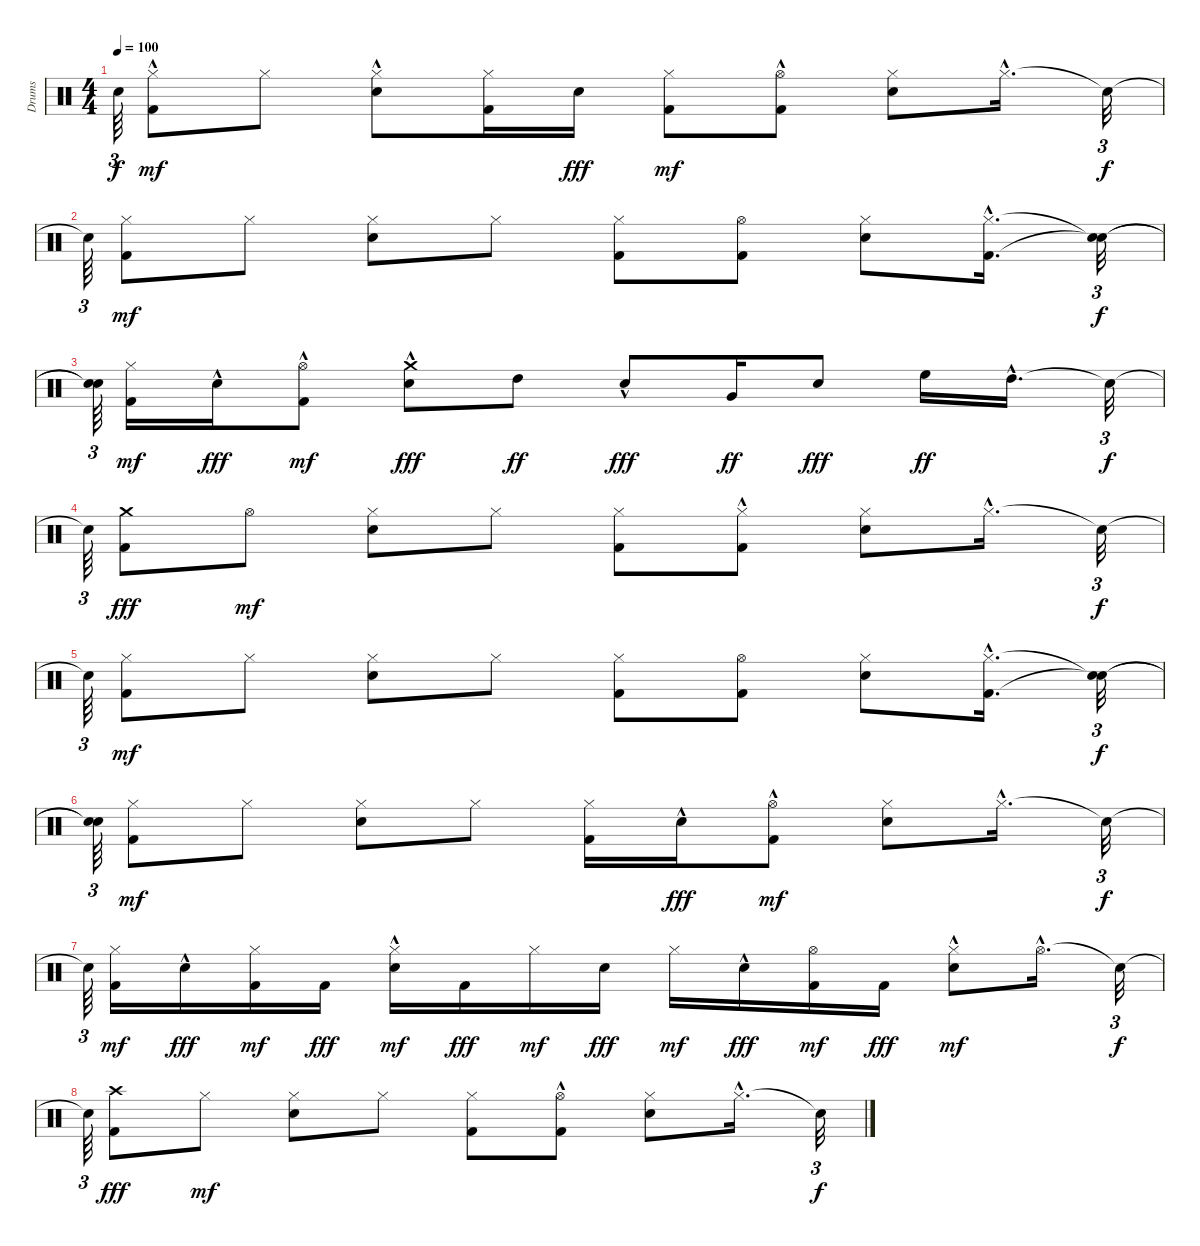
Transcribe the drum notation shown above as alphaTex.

\track ("Drums" "Drums") {instrument percussion}
\staff {score}
\articulation defaults
\ts (4 4)
\tempo 100
\clef neutral
\ks c "Snare (hit)"{t}.64{tu (3 2) dy f}
("Kick (hit) 2"{hac} "Hi-Hat (closed)").8{dy mf} "Hi-Hat (closed)".8 ("Snare (hit) 2"{hac} "Hi-Hat (closed)").8 ("Kick (hit) 2" "Hi-Hat (closed)").16 "Snare (hit) 2".16{dy fff} ("Kick (hit) 2" "Hi-Hat (closed)").8{dy mf} ("Kick (hit) 2"{hac} "Hi-Hat (open)").8 ("Snare (hit) 2" "Hi-Hat (closed)").8 "Hi-Hat (closed)"{hac}.16{d} "Snare (hit)"{t}.32{tu (3 2) dy f} |
"Snare (hit)"{t}.64{tu (3 2)} ("Kick (hit) 2" "Hi-Hat (closed)").8{dy mf} "Hi-Hat (closed)".8 ("Snare (hit) 2" "Hi-Hat (closed)").8 "Hi-Hat (closed)".8 ("Kick (hit) 2" "Hi-Hat (closed)").8 ("Kick (hit) 2" "Hi-Hat (open)").8 ("Snare (hit) 2" "Hi-Hat (closed)").8 ("Kick (hit) 2"{hac} "Hi-Hat (closed)"{hac}).16{d} ("Snare (hit)"{t} "Snare (hit)"{t}).32{tu (3 2) dy f} |
("Snare (hit)"{t} "Snare (hit)"{t}).64{tu (3 2)} ("Kick (hit) 2" "Hi-Hat (closed)").16{dy mf} "Snare (hit) 2"{hac}.16{dy fff} ("Kick (hit) 2"{hac} "Hi-Hat (open)").8{dy mf} ("Crash medium (hit)"{hac} "Snare (hit) 2").8{dy fff} "High Tom (hit)".8{dy ff} "Snare (hit) 2"{hac}.8{dy fff} "Very Low Tom (hit)".16{dy ff} "Snare (hit) 2".8{dy fff} "High Floor Tom (hit)".16{dy ff} "High Tom (hit)"{hac}.16{d} "Snare (hit)"{t}.32{tu (3 2) dy f} |
"Snare (hit)"{t}.64{tu (3 2)} ("Crash medium (hit)" "Kick (hit) 2").8{dy fff} "Hi-Hat (open)".8{dy mf} ("Snare (hit) 2" "Hi-Hat (closed)").8 "Hi-Hat (closed)".8 ("Kick (hit) 2" "Hi-Hat (closed)").8 ("Kick (hit) 2"{hac} "Hi-Hat (closed)").8 ("Snare (hit) 2" "Hi-Hat (closed)").8 "Hi-Hat (closed)"{hac}.16{d} "Snare (hit)"{t}.32{tu (3 2) dy f} |
"Snare (hit)"{t}.64{tu (3 2)} ("Kick (hit) 2" "Hi-Hat (closed)").8{dy mf} "Hi-Hat (closed)".8 ("Snare (hit) 2" "Hi-Hat (closed)").8 "Hi-Hat (closed)".8 ("Kick (hit) 2" "Hi-Hat (closed)").8 ("Kick (hit) 2" "Hi-Hat (open)").8 ("Snare (hit) 2" "Hi-Hat (closed)").8 ("Kick (hit) 2"{hac} "Hi-Hat (closed)"{hac}).16{d} ("Snare (hit)"{t} "Snare (hit)"{t}).32{tu (3 2) dy f} |
("Snare (hit)"{t} "Snare (hit)"{t}).64{tu (3 2)} ("Kick (hit) 2" "Hi-Hat (closed)").8{dy mf} "Hi-Hat (closed)".8 ("Snare (hit) 2" "Hi-Hat (closed)").8 "Hi-Hat (closed)".8 ("Kick (hit) 2" "Hi-Hat (closed)").16 "Snare (hit) 2"{hac}.16{dy fff} ("Kick (hit) 2"{hac} "Hi-Hat (open)").8{dy mf} ("Snare (hit) 2" "Hi-Hat (closed)").8 "Hi-Hat (closed)"{hac}.16{d} "Snare (hit)"{t}.32{tu (3 2) dy f} |
"Snare (hit)"{t}.64{tu (3 2)} ("Kick (hit) 2" "Hi-Hat (closed)").16{dy mf} "Snare (hit) 2"{hac}.16{dy fff} ("Kick (hit) 2" "Hi-Hat (closed)").16{dy mf} "Kick (hit) 2".16{dy fff} ("Snare (hit) 2"{hac} "Hi-Hat (closed)").16{dy mf} "Kick (hit) 2".16{dy fff} "Hi-Hat (closed)".16{dy mf} "Snare (hit) 2".16{dy fff} "Hi-Hat (closed)".16{dy mf} "Snare (hit) 2"{hac}.16{dy fff} ("Kick (hit) 2" "Hi-Hat (open)").16{dy mf} "Kick (hit) 2".16{dy fff} ("Snare (hit) 2" "Hi-Hat (closed)"{hac}).8{dy mf} "Hi-Hat (open)"{hac}.16{d} "Snare (hit)"{t}.32{tu (3 2) dy f} |
"Snare (hit)"{t}.64{tu (3 2)} ("Crash high (hit)" "Kick (hit) 2").8{dy fff} "Hi-Hat (closed)".8{dy mf} ("Snare (hit) 2" "Hi-Hat (closed)").8 "Hi-Hat (closed)".8 ("Kick (hit) 2" "Hi-Hat (closed)").8 ("Kick (hit) 2"{hac} "Hi-Hat (open)").8 ("Snare (hit) 2" "Hi-Hat (closed)").8 "Hi-Hat (closed)"{hac}.16{d} "Snare (hit)"{t}.32{tu (3 2) dy f}
